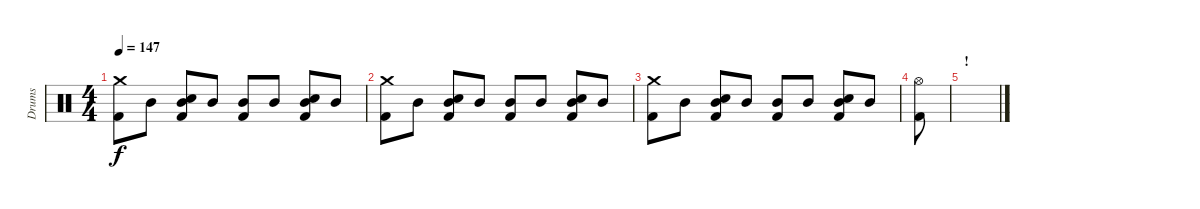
\track ("Drums" "Drums") {instrument percussion}
\staff {score}
\articulation defaults
\ts (4 4)
\tempo 147
\clef neutral
\ks c
("Crash medium (hit)" "Kick (hit) 2").8{dy f} "Mid Tom (hit)".8 ("Mid Tom (hit)" "Electric Snare (hit)" "Kick (hit) 2").8 "Mid Tom (hit)".8 ("Mid Tom (hit)" "Kick (hit) 2").8 "Mid Tom (hit)".8 ("Mid Tom (hit)" "Electric Snare (hit)" "Kick (hit) 2").8 "Mid Tom (hit)".8 |
("Crash medium (hit)" "Kick (hit) 2").8 "Mid Tom (hit)".8 ("Mid Tom (hit)" "Electric Snare (hit)" "Kick (hit) 2").8 "Mid Tom (hit)".8 ("Mid Tom (hit)" "Kick (hit) 2").8 "Mid Tom (hit)".8 ("Mid Tom (hit)" "Electric Snare (hit)" "Kick (hit) 2").8 "Mid Tom (hit)".8 |
("Crash medium (hit)" "Kick (hit) 2").8 "Mid Tom (hit)".8 ("Mid Tom (hit)" "Electric Snare (hit)" "Kick (hit) 2").8 "Mid Tom (hit)".8 ("Mid Tom (hit)" "Kick (hit) 2").8 "Mid Tom (hit)".8 ("Mid Tom (hit)" "Electric Snare (hit)" "Kick (hit) 2").8 "Mid Tom (hit)".8 |
("Hi-Hat (open)" "Kick (hit) 2").8 |
\section ("" "!")
